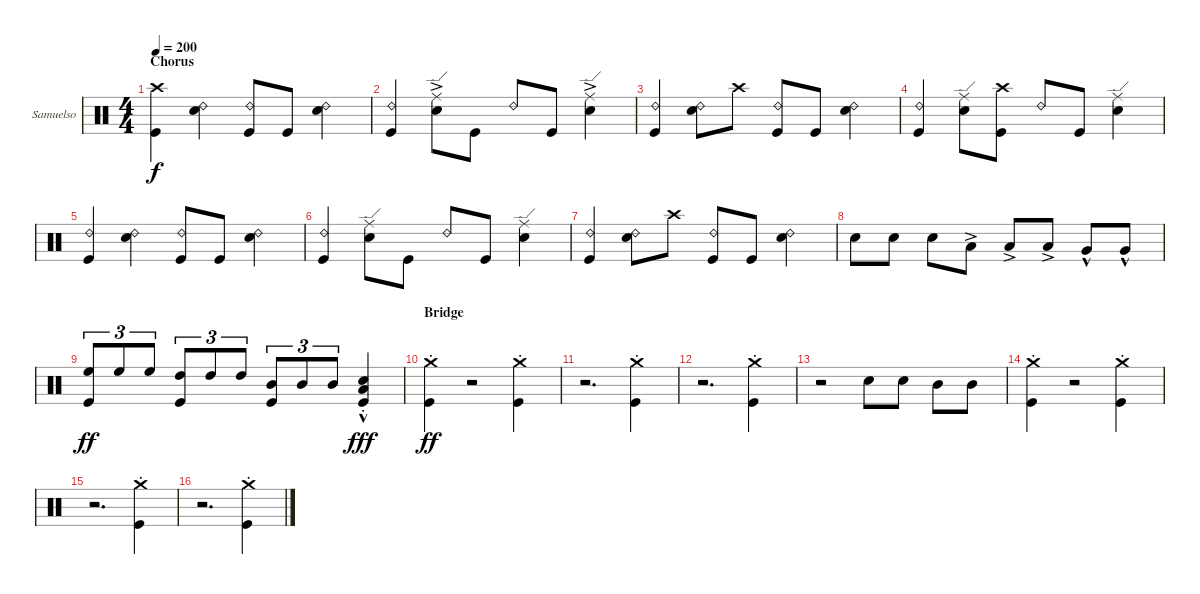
\bracketExtendMode groupsimilarinstruments
\firstSystemTrackNameOrientation horizontal
\otherSystemsTrackNameOrientation horizontal
\track ("Gar Samuelson" "Samuelso") {instrument percussion}
\staff {score}
\articulation defaults
\ts (4 4)
\section ("" "Chorus")
\tempo 200
\clef neutral
\ks c
("Crash high (hit)" "Kick (hit)").4{dy f} ("Ride (bell) 2" "Snare (hit) 2").4 ("Kick (hit)" "Ride (bell) 2").8 "Kick (hit)".8 ("Ride (bell) 2" "Snare (hit) 2").4 |
("Kick (hit)" "Ride (bell) 2").4 ("Ride (edge)"{ac} "Snare (hit) 2").8 "Kick (hit)".8 "Ride (bell) 2".8 "Kick (hit)".8 ("Ride (edge)"{ac} "Snare (hit) 2").4 |
("Kick (hit)" "Ride (bell) 2").4 ("Ride (bell) 2" "Snare (hit) 2").8 "Crash high (hit)".8 ("Kick (hit)" "Ride (bell) 2").8 "Kick (hit)".8 ("Ride (bell) 2" "Snare (hit) 2").4 |
("Kick (hit)" "Ride (bell) 2").4 ("Ride (edge)" "Snare (hit) 2").8 ("Kick (hit)" "Crash high (hit)").8 "Ride (bell) 2".8 "Kick (hit)".8 ("Ride (edge)" "Snare (hit) 2").4 |
("Kick (hit)" "Ride (bell) 2").4 ("Ride (bell) 2" "Snare (hit) 2").4 ("Kick (hit)" "Ride (bell) 2").8 "Kick (hit)".8 ("Ride (bell) 2" "Snare (hit) 2").4 |
("Kick (hit)" "Ride (bell) 2").4 ("Ride (edge)" "Snare (hit) 2").8 "Kick (hit)".8 "Ride (bell) 2".8 "Kick (hit)".8 ("Ride (edge)" "Snare (hit) 2").4 |
("Kick (hit)" "Ride (bell) 2").4 ("Ride (bell) 2" "Snare (hit) 2").8 "Crash high (hit)".8 ("Kick (hit)" "Ride (bell) 2").8 "Kick (hit)".8 ("Ride (bell) 2" "Snare (hit) 2").4 |
"Snare (hit) 2".8 "Snare (hit) 2".8 "Snare (hit) 2".8 "Low Tom (hit)"{ac}.8 "Low Tom (hit)"{ac}.8 "Low Tom (hit)"{ac}.8 "Very Low Tom (hit)"{hac}.8 "Very Low Tom (hit)"{hac}.8 |
("High Floor Tom (hit)" "Kick (hit)").8{tu (3 2) dy ff} "High Floor Tom (hit)".8{tu (3 2)} "High Floor Tom (hit)".8{tu (3 2)} ("High Tom (hit)" "Kick (hit)").8{tu (3 2)} "High Tom (hit)".8{tu (3 2)} "High Tom (hit)".8{tu (3 2)} ("Mid Tom (hit)" "Kick (hit)").8{tu (3 2)} "Mid Tom (hit)".8{tu (3 2)} "Mid Tom (hit)".8{tu (3 2)} ("Low Tom (hit)"{hac st} "Snare (hit) 2"{hac st} "Kick (hit)"{st}).4{dy fff} |
\section ("" "Bridge")
("Crash medium (hit)"{st} "Kick (hit)"{st}).4{dy ff} r.2 ("Crash medium (hit)"{st} "Kick (hit)"{st}).4 |
r.2{d} ("Crash medium (hit)"{st} "Kick (hit)"{st}).4 |
r.2{d} ("Crash medium (hit)"{st} "Kick (hit)"{st}).4 |
r.2 "Snare (hit) 2".8 "Snare (hit) 2".8 "Mid Tom (hit)".8 "Mid Tom (hit)".8 |
("Crash medium (hit)"{st} "Kick (hit)"{st}).4 r.2 ("Crash medium (hit)"{st} "Kick (hit)"{st}).4 |
r.2{d} ("Crash medium (hit)"{st} "Kick (hit)"{st}).4 |
r.2{d} ("Crash medium (hit)"{st} "Kick (hit)"{st}).4
